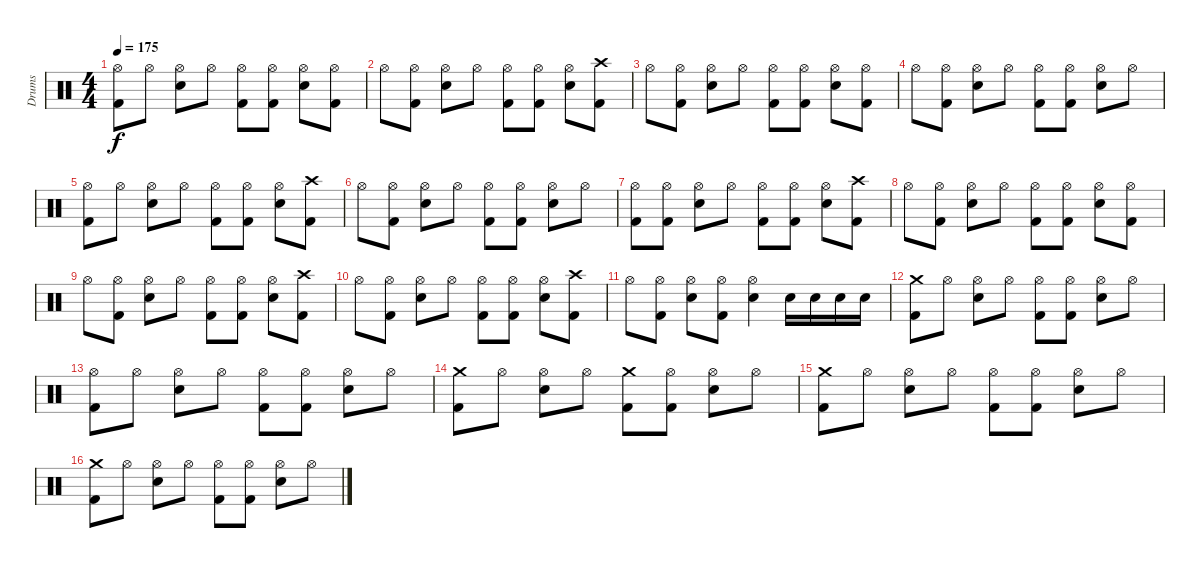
\track ("Drums" "Drums") {instrument percussion}
\staff {score}
\articulation defaults
\ts (4 4)
\tempo 175
\clef neutral
\ks c
("Hi-Hat (open)" "Kick (hit) 2").8{dy f} "Hi-Hat (open)".8 ("Hi-Hat (open)" "Snare (hit) 2").8 "Hi-Hat (open)".8 ("Hi-Hat (open)" "Kick (hit) 2").8 ("Hi-Hat (open)" "Kick (hit) 2").8 ("Hi-Hat (open)" "Snare (hit) 2").8 ("Hi-Hat (open)" "Kick (hit) 2").8 |
"Hi-Hat (open)".8 ("Hi-Hat (open)" "Kick (hit) 2").8 ("Hi-Hat (open)" "Snare (hit) 2").8 "Hi-Hat (open)".8 ("Hi-Hat (open)" "Kick (hit) 2").8 ("Hi-Hat (open)" "Kick (hit) 2").8 ("Hi-Hat (open)" "Snare (hit) 2").8 ("Crash high (hit)" "Kick (hit) 2").8 |
"Hi-Hat (open)".8 ("Hi-Hat (open)" "Kick (hit) 2").8 ("Hi-Hat (open)" "Snare (hit) 2").8 "Hi-Hat (open)".8 ("Hi-Hat (open)" "Kick (hit) 2").8 ("Hi-Hat (open)" "Kick (hit) 2").8 ("Hi-Hat (open)" "Snare (hit) 2").8 ("Hi-Hat (open)" "Kick (hit) 2").8 |
"Hi-Hat (open)".8 ("Hi-Hat (open)" "Kick (hit) 2").8 ("Hi-Hat (open)" "Snare (hit) 2").8 "Hi-Hat (open)".8 ("Hi-Hat (open)" "Kick (hit) 2").8 ("Hi-Hat (open)" "Kick (hit) 2").8 ("Hi-Hat (open)" "Snare (hit) 2").8 "Hi-Hat (open)".8 |
("Hi-Hat (open)" "Kick (hit) 2").8 "Hi-Hat (open)".8 ("Hi-Hat (open)" "Snare (hit) 2").8 "Hi-Hat (open)".8 ("Hi-Hat (open)" "Kick (hit) 2").8 ("Hi-Hat (open)" "Kick (hit) 2").8 ("Hi-Hat (open)" "Snare (hit) 2").8 ("Crash high (hit)" "Kick (hit) 2").8 |
"Hi-Hat (open)".8 ("Hi-Hat (open)" "Kick (hit) 2").8 ("Hi-Hat (open)" "Snare (hit) 2").8 "Hi-Hat (open)".8 ("Hi-Hat (open)" "Kick (hit) 2").8 ("Hi-Hat (open)" "Kick (hit) 2").8 ("Hi-Hat (open)" "Snare (hit) 2").8 "Hi-Hat (open)".8 |
("Hi-Hat (open)" "Kick (hit) 2").8 ("Hi-Hat (open)" "Kick (hit) 2").8 ("Hi-Hat (open)" "Snare (hit) 2").8 "Hi-Hat (open)".8 ("Hi-Hat (open)" "Kick (hit) 2").8 ("Hi-Hat (open)" "Kick (hit) 2").8 ("Hi-Hat (open)" "Snare (hit) 2").8 ("Crash high (hit)" "Kick (hit) 2").8 |
"Hi-Hat (open)".8 ("Hi-Hat (open)" "Kick (hit) 2").8 ("Hi-Hat (open)" "Snare (hit) 2").8 "Hi-Hat (open)".8 ("Hi-Hat (open)" "Kick (hit) 2").8 ("Hi-Hat (open)" "Kick (hit) 2").8 ("Hi-Hat (open)" "Snare (hit) 2").8 ("Hi-Hat (open)" "Kick (hit) 2").8 |
"Hi-Hat (open)".8 ("Hi-Hat (open)" "Kick (hit) 2").8 ("Hi-Hat (open)" "Snare (hit) 2").8 "Hi-Hat (open)".8 ("Hi-Hat (open)" "Kick (hit) 2").8 ("Hi-Hat (open)" "Kick (hit) 2").8 ("Hi-Hat (open)" "Snare (hit) 2").8 ("Crash high (hit)" "Kick (hit) 2").8 |
"Hi-Hat (open)".8 ("Hi-Hat (open)" "Kick (hit) 2").8 ("Hi-Hat (open)" "Snare (hit) 2").8 "Hi-Hat (open)".8 ("Hi-Hat (open)" "Kick (hit) 2").8 ("Hi-Hat (open)" "Kick (hit) 2").8 ("Hi-Hat (open)" "Snare (hit) 2").8 ("Crash high (hit)" "Kick (hit) 2").8 |
"Hi-Hat (open)".8 ("Hi-Hat (open)" "Kick (hit) 2").8 ("Hi-Hat (open)" "Snare (hit) 2").8 ("Hi-Hat (open)" "Kick (hit) 2").8 ("Hi-Hat (open)" "Snare (hit) 2").4 "Snare (hit) 2".16 "Snare (hit) 2".16 "Snare (hit) 2".16 "Snare (hit) 2".16 |
("Crash medium (hit)" "Kick (hit) 2").8 "Hi-Hat (open)".8 ("Hi-Hat (open)" "Snare (hit) 2").8 "Hi-Hat (open)".8 ("Hi-Hat (open)" "Kick (hit) 2").8 ("Hi-Hat (open)" "Kick (hit) 2").8 ("Hi-Hat (open)" "Snare (hit) 2").8 "Hi-Hat (open)".8 |
("Hi-Hat (open)" "Kick (hit) 2").8 "Hi-Hat (open)".8 ("Hi-Hat (open)" "Snare (hit) 2").8 "Hi-Hat (open)".8 ("Hi-Hat (open)" "Kick (hit) 2").8 ("Hi-Hat (open)" "Kick (hit) 2").8 ("Hi-Hat (open)" "Snare (hit) 2").8 "Hi-Hat (open)".8 |
("Crash medium (hit)" "Kick (hit) 2").8 "Hi-Hat (open)".8 ("Hi-Hat (open)" "Snare (hit) 2").8 "Hi-Hat (open)".8 ("Crash medium (hit)" "Kick (hit) 2").8 ("Hi-Hat (open)" "Kick (hit) 2").8 ("Hi-Hat (open)" "Snare (hit) 2").8 "Hi-Hat (open)".8 |
("Crash medium (hit)" "Kick (hit) 2").8 "Hi-Hat (open)".8 ("Hi-Hat (open)" "Snare (hit) 2").8 "Hi-Hat (open)".8 ("Hi-Hat (open)" "Kick (hit) 2").8 ("Hi-Hat (open)" "Kick (hit) 2").8 ("Hi-Hat (open)" "Snare (hit) 2").8 "Hi-Hat (open)".8 |
("Crash medium (hit)" "Kick (hit) 2").8 "Hi-Hat (open)".8 ("Hi-Hat (open)" "Snare (hit) 2").8 "Hi-Hat (open)".8 ("Hi-Hat (open)" "Kick (hit) 2").8 ("Hi-Hat (open)" "Kick (hit) 2").8 ("Hi-Hat (open)" "Snare (hit) 2").8 "Hi-Hat (open)".8
